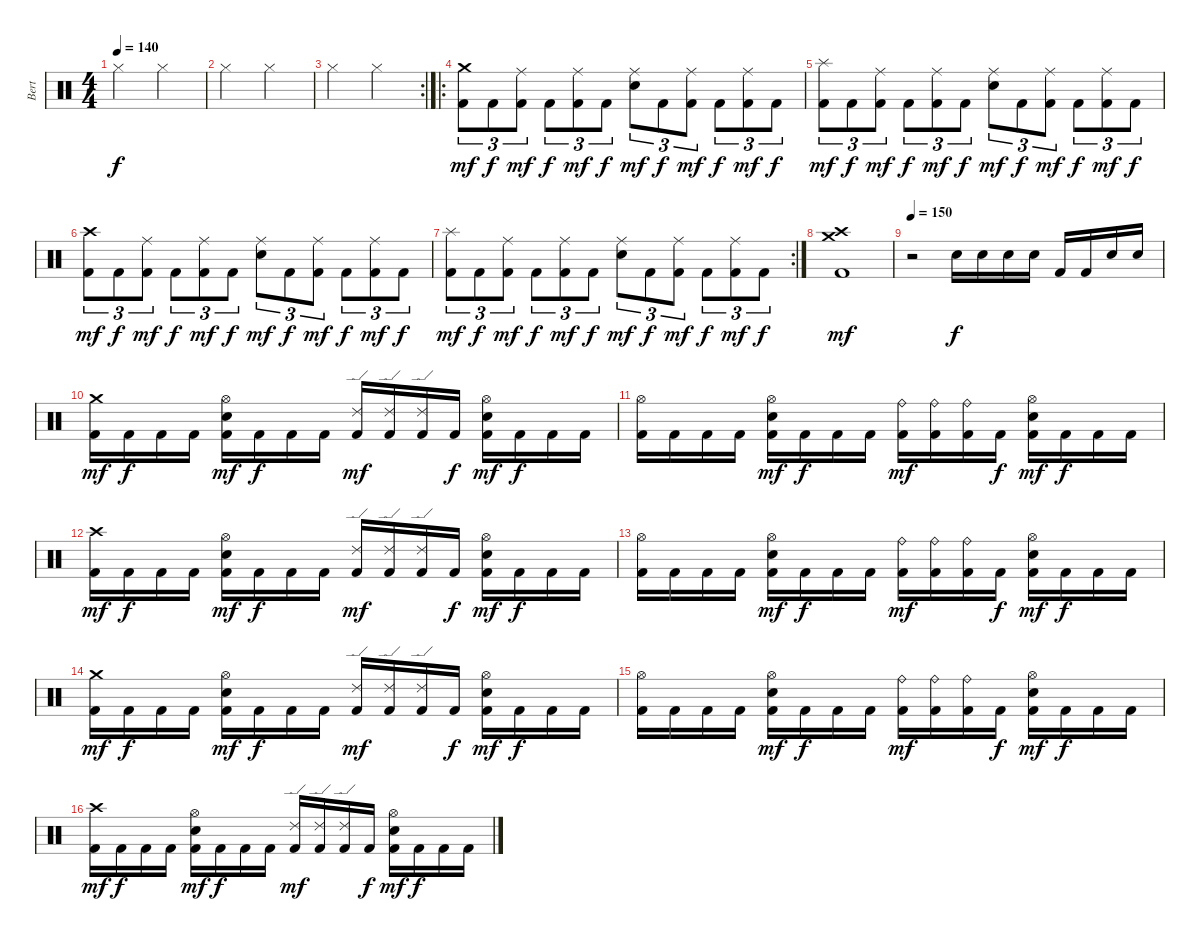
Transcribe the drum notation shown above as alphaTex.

\track ("Bert" "Bert") {instrument percussion}
\staff {score}
\articulation defaults
\ts (4 4)
\tempo 140
\clef neutral
\ks c "Hi-Hat (closed)".2{dy f} "Hi-Hat (closed)".2
|
"Hi-Hat (closed)".2 "Hi-Hat (closed)".2 |
\rc 2 "Hi-Hat (closed)".2 "Hi-Hat (closed)".2
|
\ro
("Crash medium (hit)" "Kick (hit) 2").8{tu (3 2) dy mf} "Kick (hit) 2".8{tu (3 2) dy f} ("Ride (middle)" "Kick (hit) 2").8{tu (3 2) dy mf} "Kick (hit) 2".8{tu (3 2) dy f} ("Ride (middle)" "Kick (hit) 2").8{tu (3 2) dy mf} "Kick (hit) 2".8{tu (3 2) dy f} ("Ride (middle)" "Snare (hit) 2").8{tu (3 2) dy mf} "Kick (hit) 2".8{tu (3 2) dy f} ("Ride (middle)" "Kick (hit) 2").8{tu (3 2) dy mf} "Kick (hit) 2".8{tu (3 2) dy f} ("Ride (middle)" "Kick (hit) 2").8{tu (3 2) dy mf} "Kick (hit) 2".8{tu (3 2) dy f} |
("Splash (hit)" "Kick (hit) 2").8{tu (3 2) dy mf} "Kick (hit) 2".8{tu (3 2) dy f} ("Ride (middle)" "Kick (hit) 2").8{tu (3 2) dy mf} "Kick (hit) 2".8{tu (3 2) dy f} ("Ride (middle)" "Kick (hit) 2").8{tu (3 2) dy mf} "Kick (hit) 2".8{tu (3 2) dy f} ("Ride (middle)" "Snare (hit) 2").8{tu (3 2) dy mf} "Kick (hit) 2".8{tu (3 2) dy f} ("Ride (middle)" "Kick (hit) 2").8{tu (3 2) dy mf} "Kick (hit) 2".8{tu (3 2) dy f} ("Ride (middle)" "Kick (hit) 2").8{tu (3 2) dy mf} "Kick (hit) 2".8{tu (3 2) dy f} |
("Crash high (hit)" "Kick (hit) 2").8{tu (3 2) dy mf} "Kick (hit) 2".8{tu (3 2) dy f} ("Ride (middle)" "Kick (hit) 2").8{tu (3 2) dy mf} "Kick (hit) 2".8{tu (3 2) dy f} ("Ride (middle)" "Kick (hit) 2").8{tu (3 2) dy mf} "Kick (hit) 2".8{tu (3 2) dy f} ("Ride (middle)" "Snare (hit) 2").8{tu (3 2) dy mf} "Kick (hit) 2".8{tu (3 2) dy f} ("Ride (middle)" "Kick (hit) 2").8{tu (3 2) dy mf} "Kick (hit) 2".8{tu (3 2) dy f} ("Ride (middle)" "Kick (hit) 2").8{tu (3 2) dy mf} "Kick (hit) 2".8{tu (3 2) dy f} |
\rc 2
("Splash (hit)" "Kick (hit) 2").8{tu (3 2) dy mf} "Kick (hit) 2".8{tu (3 2) dy f} ("Ride (middle)" "Kick (hit) 2").8{tu (3 2) dy mf} "Kick (hit) 2".8{tu (3 2) dy f} ("Ride (middle)" "Kick (hit) 2").8{tu (3 2) dy mf} "Kick (hit) 2".8{tu (3 2) dy f} ("Ride (middle)" "Snare (hit) 2").8{tu (3 2) dy mf} "Kick (hit) 2".8{tu (3 2) dy f} ("Ride (middle)" "Kick (hit) 2").8{tu (3 2) dy mf} "Kick (hit) 2".8{tu (3 2) dy f} ("Ride (middle)" "Kick (hit) 2").8{tu (3 2) dy mf} "Kick (hit) 2".8{tu (3 2) dy f} |
("Crash high (hit)" "Crash medium (hit)" "Kick (hit) 2").1{dy mf} |
\tempo 150
r.2 "Snare (hit) 2".16{dy f} "Snare (hit) 2".16 "Snare (hit) 2".16 "Snare (hit) 2".16 "Kick (hit) 2".16 "Kick (hit) 2".16 "Snare (hit) 2".16 "Snare (hit) 2".16 |
("Crash medium (hit)" "Kick (hit) 2").16{dy mf} "Kick (hit) 2".16{dy f} "Kick (hit) 2".16 "Kick (hit) 2".16 ("Hi-Hat (open)" "Snare (hit) 2" "Kick (hit) 2").16{dy mf} "Kick (hit) 2".16{dy f} "Kick (hit) 2".16 "Kick (hit) 2".16 ("Ride (edge) 2" "Kick (hit) 2").16{dy mf} ("Ride (edge) 2" "Kick (hit) 2").16 ("Ride (edge) 2" "Kick (hit) 2").16 "Kick (hit) 2".16{dy f} ("Hi-Hat (open)" "Snare (hit) 2" "Kick (hit) 2").16{dy mf} "Kick (hit) 2".16{dy f} "Kick (hit) 2".16 "Kick (hit) 2".16 |
("Hi-Hat (open)" "Kick (hit) 2").16 "Kick (hit) 2".16 "Kick (hit) 2".16 "Kick (hit) 2".16 ("Hi-Hat (open)" "Snare (hit) 2" "Kick (hit) 2").16{dy mf} "Kick (hit) 2".16{dy f} "Kick (hit) 2".16 "Kick (hit) 2".16 ("Ride (bell)" "Kick (hit) 2").16{dy mf} ("Ride (bell)" "Kick (hit) 2").16 ("Ride (bell)" "Kick (hit) 2").16 "Kick (hit) 2".16{dy f} ("Hi-Hat (open)" "Snare (hit) 2" "Kick (hit) 2").16{dy mf} "Kick (hit) 2".16{dy f} "Kick (hit) 2".16 "Kick (hit) 2".16 |
("Crash high (hit)" "Kick (hit) 2").16{dy mf} "Kick (hit) 2".16{dy f} "Kick (hit) 2".16 "Kick (hit) 2".16 ("Hi-Hat (open)" "Snare (hit) 2" "Kick (hit) 2").16{dy mf} "Kick (hit) 2".16{dy f} "Kick (hit) 2".16 "Kick (hit) 2".16 ("Ride (edge) 2" "Kick (hit) 2").16{dy mf} ("Ride (edge) 2" "Kick (hit) 2").16 ("Ride (edge) 2" "Kick (hit) 2").16 "Kick (hit) 2".16{dy f} ("Hi-Hat (open)" "Snare (hit) 2" "Kick (hit) 2").16{dy mf} "Kick (hit) 2".16{dy f} "Kick (hit) 2".16 "Kick (hit) 2".16 |
("Hi-Hat (open)" "Kick (hit) 2").16 "Kick (hit) 2".16 "Kick (hit) 2".16 "Kick (hit) 2".16 ("Hi-Hat (open)" "Snare (hit) 2" "Kick (hit) 2").16{dy mf} "Kick (hit) 2".16{dy f} "Kick (hit) 2".16 "Kick (hit) 2".16 ("Ride (bell)" "Kick (hit) 2").16{dy mf} ("Ride (bell)" "Kick (hit) 2").16 ("Ride (bell)" "Kick (hit) 2").16 "Kick (hit) 2".16{dy f} ("Hi-Hat (open)" "Snare (hit) 2" "Kick (hit) 2").16{dy mf} "Kick (hit) 2".16{dy f} "Kick (hit) 2".16 "Kick (hit) 2".16 |
("Crash medium (hit)" "Kick (hit) 2").16{dy mf} "Kick (hit) 2".16{dy f} "Kick (hit) 2".16 "Kick (hit) 2".16 ("Hi-Hat (open)" "Snare (hit) 2" "Kick (hit) 2").16{dy mf} "Kick (hit) 2".16{dy f} "Kick (hit) 2".16 "Kick (hit) 2".16 ("Ride (edge) 2" "Kick (hit) 2").16{dy mf} ("Ride (edge) 2" "Kick (hit) 2").16 ("Ride (edge) 2" "Kick (hit) 2").16 "Kick (hit) 2".16{dy f} ("Hi-Hat (open)" "Snare (hit) 2" "Kick (hit) 2").16{dy mf} "Kick (hit) 2".16{dy f} "Kick (hit) 2".16 "Kick (hit) 2".16 |
("Hi-Hat (open)" "Kick (hit) 2").16 "Kick (hit) 2".16 "Kick (hit) 2".16 "Kick (hit) 2".16 ("Hi-Hat (open)" "Snare (hit) 2" "Kick (hit) 2").16{dy mf} "Kick (hit) 2".16{dy f} "Kick (hit) 2".16 "Kick (hit) 2".16 ("Ride (bell)" "Kick (hit) 2").16{dy mf} ("Ride (bell)" "Kick (hit) 2").16 ("Ride (bell)" "Kick (hit) 2").16 "Kick (hit) 2".16{dy f} ("Hi-Hat (open)" "Snare (hit) 2" "Kick (hit) 2").16{dy mf} "Kick (hit) 2".16{dy f} "Kick (hit) 2".16 "Kick (hit) 2".16 |
("Crash high (hit)" "Kick (hit) 2").16{dy mf} "Kick (hit) 2".16{dy f} "Kick (hit) 2".16 "Kick (hit) 2".16 ("Hi-Hat (open)" "Snare (hit) 2" "Kick (hit) 2").16{dy mf} "Kick (hit) 2".16{dy f} "Kick (hit) 2".16 "Kick (hit) 2".16 ("Ride (edge) 2" "Kick (hit) 2").16{dy mf} ("Ride (edge) 2" "Kick (hit) 2").16 ("Ride (edge) 2" "Kick (hit) 2").16 "Kick (hit) 2".16{dy f} ("Hi-Hat (open)" "Snare (hit) 2" "Kick (hit) 2").16{dy mf} "Kick (hit) 2".16{dy f} "Kick (hit) 2".16 "Kick (hit) 2".16
